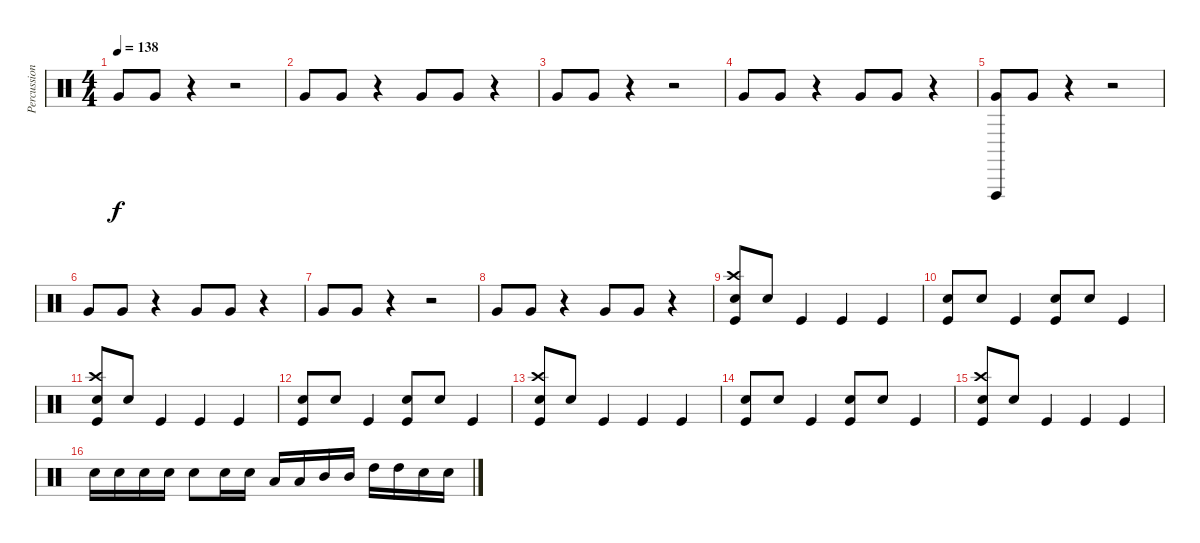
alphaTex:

\track ("Percussion" "Percussion") {instrument percussion}
\staff {score}
\articulation defaults
\ts (4 4)
\tempo 138
\clef neutral
\ks c "Very Low Tom (hit)".8{dy f} "Very Low Tom (hit)".8
r.4 r.2 |
"Very Low Tom (hit)".8 "Very Low Tom (hit)".8 r.4 "Very Low Tom (hit)".8 "Very Low Tom (hit)".8 r.4 |
"Very Low Tom (hit)".8 "Very Low Tom (hit)".8 r.4 r.2 |
"Very Low Tom (hit)".8 "Very Low Tom (hit)".8 r.4 "Very Low Tom (hit)".8 "Very Low Tom (hit)".8 r.4 |
("Very Low Tom (hit)" "Vibraslap (hit)").8 "Very Low Tom (hit)".8 r.4 r.2 |
"Very Low Tom (hit)".8 "Very Low Tom (hit)".8 r.4 "Very Low Tom (hit)".8 "Very Low Tom (hit)".8 r.4 |
"Very Low Tom (hit)".8 "Very Low Tom (hit)".8 r.4 r.2 |
"Very Low Tom (hit)".8 "Very Low Tom (hit)".8 r.4 "Very Low Tom (hit)".8 "Very Low Tom (hit)".8 r.4 |
("Snare (hit) 2" "Crash high (hit)" "Kick (hit)").8 "Snare (hit) 2".8 "Kick (hit)".4 "Kick (hit)".4 "Kick (hit)".4 |
("Snare (hit) 2" "Kick (hit)").8 "Snare (hit) 2".8 "Kick (hit)".4 ("Snare (hit) 2" "Kick (hit)").8 "Snare (hit) 2".8 "Kick (hit)".4 |
("Snare (hit) 2" "Crash high (hit)" "Kick (hit)").8 "Snare (hit) 2".8 "Kick (hit)".4 "Kick (hit)".4 "Kick (hit)".4 |
("Snare (hit) 2" "Kick (hit)").8 "Snare (hit) 2".8 "Kick (hit)".4 ("Snare (hit) 2" "Kick (hit)").8 "Snare (hit) 2".8 "Kick (hit)".4 |
("Snare (hit) 2" "Crash high (hit)" "Kick (hit)").8 "Snare (hit) 2".8 "Kick (hit)".4 "Kick (hit)".4 "Kick (hit)".4 |
("Snare (hit) 2" "Kick (hit)").8 "Snare (hit) 2".8 "Kick (hit)".4 ("Snare (hit) 2" "Kick (hit)").8 "Snare (hit) 2".8 "Kick (hit)".4 |
("Snare (hit) 2" "Crash high (hit)" "Kick (hit)").8 "Snare (hit) 2".8 "Kick (hit)".4 "Kick (hit)".4 "Kick (hit)".4 |
"Snare (hit) 2".16 "Snare (hit) 2".16 "Snare (hit) 2".16 "Snare (hit) 2".16 "Snare (hit) 2".8 "Snare (hit) 2".16 "Snare (hit) 2".16 "Low Tom (hit)".16 "Low Tom (hit)".16 "Mid Tom (hit)".16 "Mid Tom (hit)".16 "High Tom (hit)".16 "High Tom (hit)".16 "Snare (hit) 2".16 "Snare (hit) 2".16
